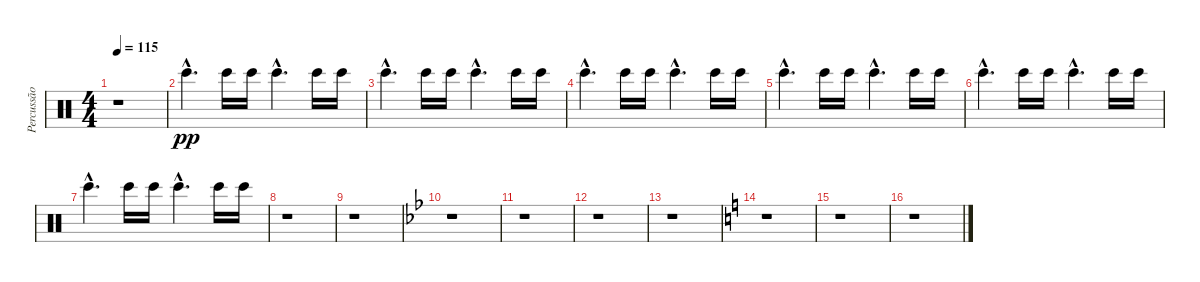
\track ("Percussão" "Percussão") {instrument percussion}
\staff {score}
\articulation defaults
\ts (4 4)
\tempo 115
\clef neutral
\ks c
r.1{dy f} |
"Bongo High (hit)"{hac}.4{d dy pp} "Bongo High (hit)".16 "Bongo High (hit)".16 "Bongo High (hit)"{hac}.4{d} "Bongo High (hit)".16 "Bongo High (hit)".16 |
"Bongo High (hit)"{hac}.4{d} "Bongo High (hit)".16 "Bongo High (hit)".16 "Bongo High (hit)"{hac}.4{d} "Bongo High (hit)".16 "Bongo High (hit)".16 |
"Bongo High (hit)"{hac}.4{d} "Bongo High (hit)".16 "Bongo High (hit)".16 "Bongo High (hit)"{hac}.4{d} "Bongo High (hit)".16 "Bongo High (hit)".16 |
"Bongo High (hit)"{hac}.4{d} "Bongo High (hit)".16 "Bongo High (hit)".16 "Bongo High (hit)"{hac}.4{d} "Bongo High (hit)".16 "Bongo High (hit)".16 |
"Bongo High (hit)"{hac}.4{d} "Bongo High (hit)".16 "Bongo High (hit)".16 "Bongo High (hit)"{hac}.4{d} "Bongo High (hit)".16 "Bongo High (hit)".16 |
"Bongo High (hit)"{hac}.4{d} "Bongo High (hit)".16 "Bongo High (hit)".16 "Bongo High (hit)"{hac}.4{d} "Bongo High (hit)".16 "Bongo High (hit)".16 |
r.1 |
r.1 |
\ks bb
r.1 |
r.1 |
r.1 |
r.1 |
\ks c
r.1 |
r.1 |
r.1
